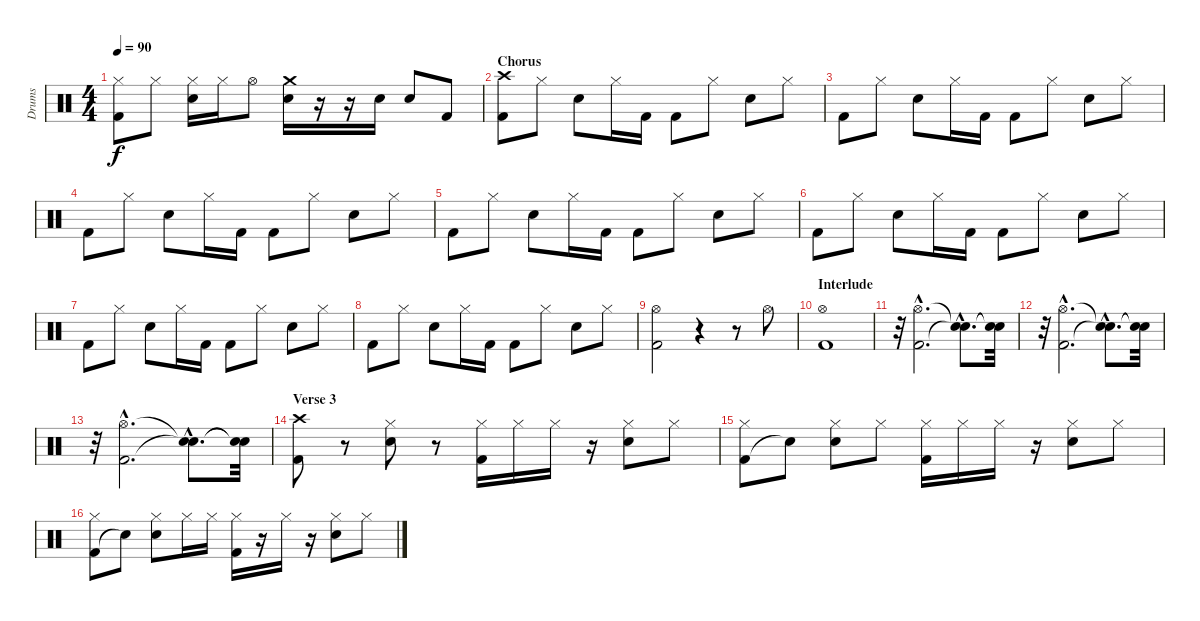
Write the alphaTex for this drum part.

\track ("Drums" "Drums") {instrument percussion}
\staff {score}
\articulation defaults
\ts (4 4)
\tempo 90
\clef neutral
\ks c
("Kick (hit) 2" "Hi-Hat (closed)").8{dy f} "Hi-Hat (closed)".8 ("Snare (hit) 2" "Hi-Hat (closed)").16 "Hi-Hat (closed)".16 "Hi-Hat (open)".8 ("Snare (hit) 2" "Crash medium (hit)").16 r.16 r.16 "Snare (hit) 2".16 "Snare (hit) 2".8 "Kick (hit) 2".8 |
\section ("" "Chorus")
("Kick (hit) 2" "Crash high (hit)").8 "Hi-Hat (closed)".8 "Snare (hit) 2".8 "Hi-Hat (closed)".16 "Kick (hit) 2".16 "Kick (hit) 2".8 "Hi-Hat (closed)".8 "Snare (hit) 2".8 "Hi-Hat (closed)".8 |
"Kick (hit) 2".8 "Hi-Hat (closed)".8 "Snare (hit) 2".8 "Hi-Hat (closed)".16 "Kick (hit) 2".16 "Kick (hit) 2".8 "Hi-Hat (closed)".8 "Snare (hit) 2".8 "Hi-Hat (closed)".8 |
"Kick (hit) 2".8 "Hi-Hat (closed)".8 "Snare (hit) 2".8 "Hi-Hat (closed)".16 "Kick (hit) 2".16 "Kick (hit) 2".8 "Hi-Hat (closed)".8 "Snare (hit) 2".8 "Hi-Hat (closed)".8 |
"Kick (hit) 2".8 "Hi-Hat (closed)".8 "Snare (hit) 2".8 "Hi-Hat (closed)".16 "Kick (hit) 2".16 "Kick (hit) 2".8 "Hi-Hat (closed)".8 "Snare (hit) 2".8 "Hi-Hat (closed)".8 |
"Kick (hit) 2".8 "Hi-Hat (closed)".8 "Snare (hit) 2".8 "Hi-Hat (closed)".16 "Kick (hit) 2".16 "Kick (hit) 2".8 "Hi-Hat (closed)".8 "Snare (hit) 2".8 "Hi-Hat (closed)".8 |
"Kick (hit) 2".8 "Hi-Hat (closed)".8 "Snare (hit) 2".8 "Hi-Hat (closed)".16 "Kick (hit) 2".16 "Kick (hit) 2".8 "Hi-Hat (closed)".8 "Snare (hit) 2".8 "Hi-Hat (closed)".8 |
"Kick (hit) 2".8 "Hi-Hat (closed)".8 "Snare (hit) 2".8 "Hi-Hat (closed)".16 "Kick (hit) 2".16 "Kick (hit) 2".8 "Hi-Hat (closed)".8 "Snare (hit) 2".8 "Hi-Hat (closed)".8 |
("Kick (hit) 2" "Hi-Hat (open)").2 r.4 r.8 "Hi-Hat (open)".8 |
\section ("" "Interlude")
("Hi-Hat (open)" "Kick (hit) 2").1 |
r.32 ("Hi-Hat (open)"{hac} "Kick (hit) 2"{hac}).2{d} ("Snare (hit)"{hac t} "Snare (hit)"{hac t}).8{d} ("Snare (hit)"{t} "Snare (hit)"{t}).32 |
r.32 ("Hi-Hat (open)"{hac} "Kick (hit) 2"{hac}).2{d} ("Snare (hit)"{hac t} "Snare (hit)"{hac t}).8{d} ("Snare (hit)"{t} "Snare (hit)"{t}).32 |
r.32 ("Hi-Hat (open)"{hac} "Kick (hit) 2"{hac}).2{d} ("Snare (hit)"{hac t} "Snare (hit)"{hac t}).8{d} ("Snare (hit)"{t} "Snare (hit)"{t}).32 |
\section ("" "Verse 3")
("Kick (hit) 2" "Crash high (hit)").8 r.8 ("Snare (hit) 2" "Hi-Hat (closed)").8 r.8 ("Kick (hit) 2" "Hi-Hat (closed)").16 "Hi-Hat (closed)".16 "Hi-Hat (closed)".16 r.16 ("Snare (hit) 2" "Hi-Hat (closed)").8 "Hi-Hat (closed)".8 |
("Kick (hit) 2" "Hi-Hat (closed)").8 "Snare (hit)"{t}.8 ("Snare (hit) 2" "Hi-Hat (closed)").8 "Hi-Hat (closed)".8 ("Kick (hit) 2" "Hi-Hat (closed)").16 "Hi-Hat (closed)".16 "Hi-Hat (closed)".16 r.16 ("Snare (hit) 2" "Hi-Hat (closed)").8 "Hi-Hat (closed)".8 |
("Kick (hit) 2" "Hi-Hat (closed)").8 "Snare (hit)"{t}.8 ("Snare (hit) 2" "Hi-Hat (closed)").8 "Hi-Hat (closed)".16 "Hi-Hat (closed)".16 ("Kick (hit) 2" "Hi-Hat (closed)").16 r.16 "Hi-Hat (closed)".16 r.16 ("Snare (hit) 2" "Hi-Hat (closed)").8 "Hi-Hat (closed)".8
